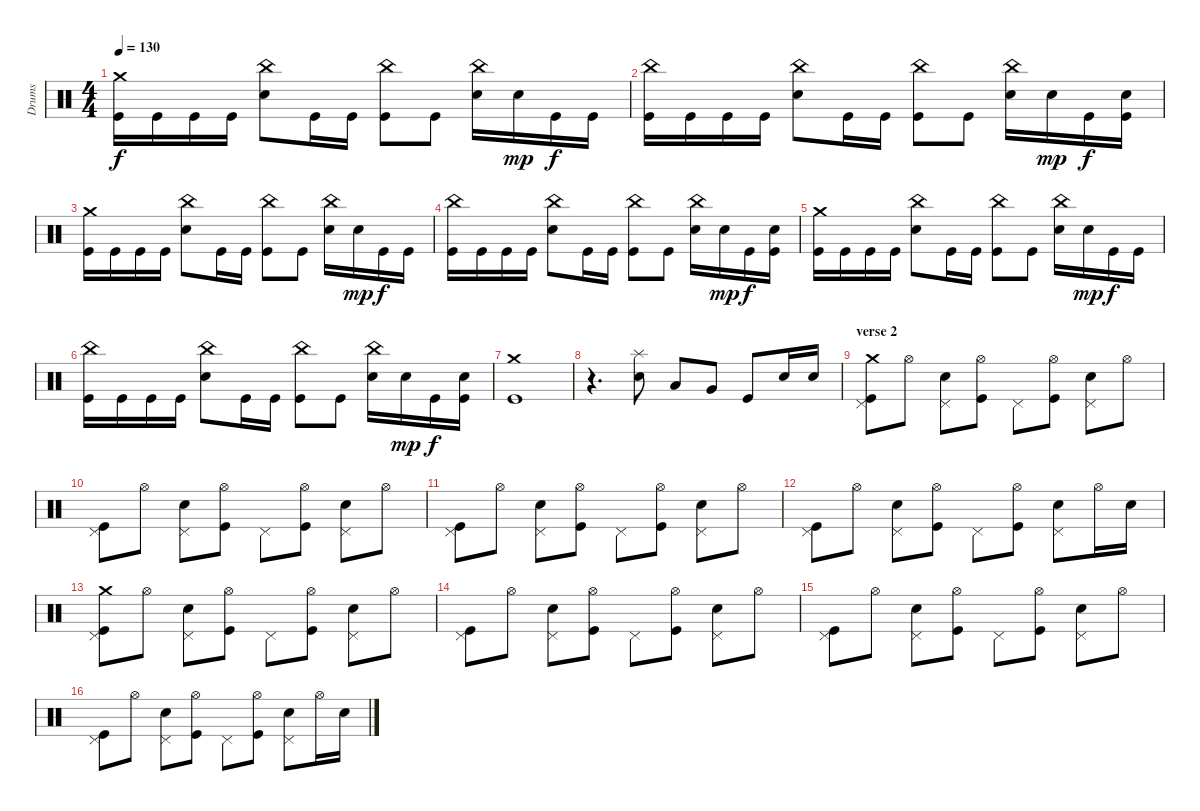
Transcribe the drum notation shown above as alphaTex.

\track ("Drums" "Drums") {instrument percussion}
\staff {score}
\articulation defaults
\ts (4 4)
\tempo 130
\clef neutral
\ks c
("Kick (hit)" "Crash medium (hit)").16{dy f} "Kick (hit)".16 "Kick (hit)".16 "Kick (hit)".16 ("Electric Snare (hit)" "China (hit)").8 "Kick (hit)".16 "Kick (hit)".16 ("Kick (hit)" "China (hit)").8 "Kick (hit)".8 ("Electric Snare (hit)" "China (hit)").16 "Electric Snare (hit)".16{dy mp} "Kick (hit)".16{dy f} "Kick (hit)".16 |
("Kick (hit)" "China (hit)").16 "Kick (hit)".16 "Kick (hit)".16 "Kick (hit)".16 ("Electric Snare (hit)" "China (hit)").8 "Kick (hit)".16 "Kick (hit)".16 ("Kick (hit)" "China (hit)").8 "Kick (hit)".8 ("Electric Snare (hit)" "China (hit)").16 "Electric Snare (hit)".16{dy mp} "Kick (hit)".16{dy f} ("Kick (hit)" "Electric Snare (hit)").16 |
("Kick (hit)" "Crash medium (hit)").16 "Kick (hit)".16 "Kick (hit)".16 "Kick (hit)".16 ("Electric Snare (hit)" "China (hit)").8 "Kick (hit)".16 "Kick (hit)".16 ("Kick (hit)" "China (hit)").8 "Kick (hit)".8 ("Electric Snare (hit)" "China (hit)").16 "Electric Snare (hit)".16{dy mp} "Kick (hit)".16{dy f} "Kick (hit)".16 |
("Kick (hit)" "China (hit)").16 "Kick (hit)".16 "Kick (hit)".16 "Kick (hit)".16 ("Electric Snare (hit)" "China (hit)").8 "Kick (hit)".16 "Kick (hit)".16 ("Kick (hit)" "China (hit)").8 "Kick (hit)".8 ("Electric Snare (hit)" "China (hit)").16 "Electric Snare (hit)".16{dy mp} "Kick (hit)".16{dy f} ("Kick (hit)" "Electric Snare (hit)").16 |
("Kick (hit)" "Crash medium (hit)").16 "Kick (hit)".16 "Kick (hit)".16 "Kick (hit)".16 ("Electric Snare (hit)" "China (hit)").8 "Kick (hit)".16 "Kick (hit)".16 ("Kick (hit)" "China (hit)").8 "Kick (hit)".8 ("Electric Snare (hit)" "China (hit)").16 "Electric Snare (hit)".16{dy mp} "Kick (hit)".16{dy f} "Kick (hit)".16 |
("Kick (hit)" "China (hit)").16 "Kick (hit)".16 "Kick (hit)".16 "Kick (hit)".16 ("Electric Snare (hit)" "China (hit)").8 "Kick (hit)".16 "Kick (hit)".16 ("Kick (hit)" "China (hit)").8 "Kick (hit)".8 ("Electric Snare (hit)" "China (hit)").16 "Electric Snare (hit)".16{dy mp} "Kick (hit)".16{dy f} ("Kick (hit)" "Electric Snare (hit)").16 |
("Kick (hit)" "Crash medium (hit)").1 |
r.4{d} ("Electric Snare (hit)" "Splash (hit)").8 "Low Tom (hit)".8 "Very Low Tom (hit)".8 "Kick (hit)".8 "Electric Snare (hit)".16 "Electric Snare (hit)".16 |
\section ("" "verse 2")
("Kick (hit)" "Crash medium (hit)" "Pedal Hi-Hat (hit)").8 "Hi-Hat (open)".8 ("Electric Snare (hit)" "Pedal Hi-Hat (hit)").8 ("Kick (hit)" "Hi-Hat (open)").8 "Pedal Hi-Hat (hit)".8 ("Kick (hit)" "Hi-Hat (open)").8 ("Electric Snare (hit)" "Pedal Hi-Hat (hit)").8 "Hi-Hat (open)".8 |
("Kick (hit)" "Pedal Hi-Hat (hit)").8 "Hi-Hat (open)".8 ("Electric Snare (hit)" "Pedal Hi-Hat (hit)").8 ("Kick (hit)" "Hi-Hat (open)").8 "Pedal Hi-Hat (hit)".8 ("Kick (hit)" "Hi-Hat (open)").8 ("Electric Snare (hit)" "Pedal Hi-Hat (hit)").8 "Hi-Hat (open)".8 |
("Kick (hit)" "Pedal Hi-Hat (hit)").8 "Hi-Hat (open)".8 ("Electric Snare (hit)" "Pedal Hi-Hat (hit)").8 ("Kick (hit)" "Hi-Hat (open)").8 "Pedal Hi-Hat (hit)".8 ("Kick (hit)" "Hi-Hat (open)").8 ("Electric Snare (hit)" "Pedal Hi-Hat (hit)").8 "Hi-Hat (open)".8 |
("Kick (hit)" "Pedal Hi-Hat (hit)").8 "Hi-Hat (open)".8 ("Electric Snare (hit)" "Pedal Hi-Hat (hit)").8 ("Kick (hit)" "Hi-Hat (open)").8 "Pedal Hi-Hat (hit)".8 ("Kick (hit)" "Hi-Hat (open)").8 ("Electric Snare (hit)" "Pedal Hi-Hat (hit)").8 "Hi-Hat (open)".16 "Electric Snare (hit)".16 |
("Kick (hit)" "Crash medium (hit)" "Pedal Hi-Hat (hit)").8 "Hi-Hat (open)".8 ("Electric Snare (hit)" "Pedal Hi-Hat (hit)").8 ("Kick (hit)" "Hi-Hat (open)").8 "Pedal Hi-Hat (hit)".8 ("Kick (hit)" "Hi-Hat (open)").8 ("Electric Snare (hit)" "Pedal Hi-Hat (hit)").8 "Hi-Hat (open)".8 |
("Kick (hit)" "Pedal Hi-Hat (hit)").8 "Hi-Hat (open)".8 ("Electric Snare (hit)" "Pedal Hi-Hat (hit)").8 ("Kick (hit)" "Hi-Hat (open)").8 "Pedal Hi-Hat (hit)".8 ("Kick (hit)" "Hi-Hat (open)").8 ("Electric Snare (hit)" "Pedal Hi-Hat (hit)").8 "Hi-Hat (open)".8 |
("Kick (hit)" "Pedal Hi-Hat (hit)").8 "Hi-Hat (open)".8 ("Electric Snare (hit)" "Pedal Hi-Hat (hit)").8 ("Kick (hit)" "Hi-Hat (open)").8 "Pedal Hi-Hat (hit)".8 ("Kick (hit)" "Hi-Hat (open)").8 ("Electric Snare (hit)" "Pedal Hi-Hat (hit)").8 "Hi-Hat (open)".8 |
("Kick (hit)" "Pedal Hi-Hat (hit)").8 "Hi-Hat (open)".8 ("Electric Snare (hit)" "Pedal Hi-Hat (hit)").8 ("Kick (hit)" "Hi-Hat (open)").8 "Pedal Hi-Hat (hit)".8 ("Kick (hit)" "Hi-Hat (open)").8 ("Electric Snare (hit)" "Pedal Hi-Hat (hit)").8 "Hi-Hat (open)".16 "Electric Snare (hit)".16
